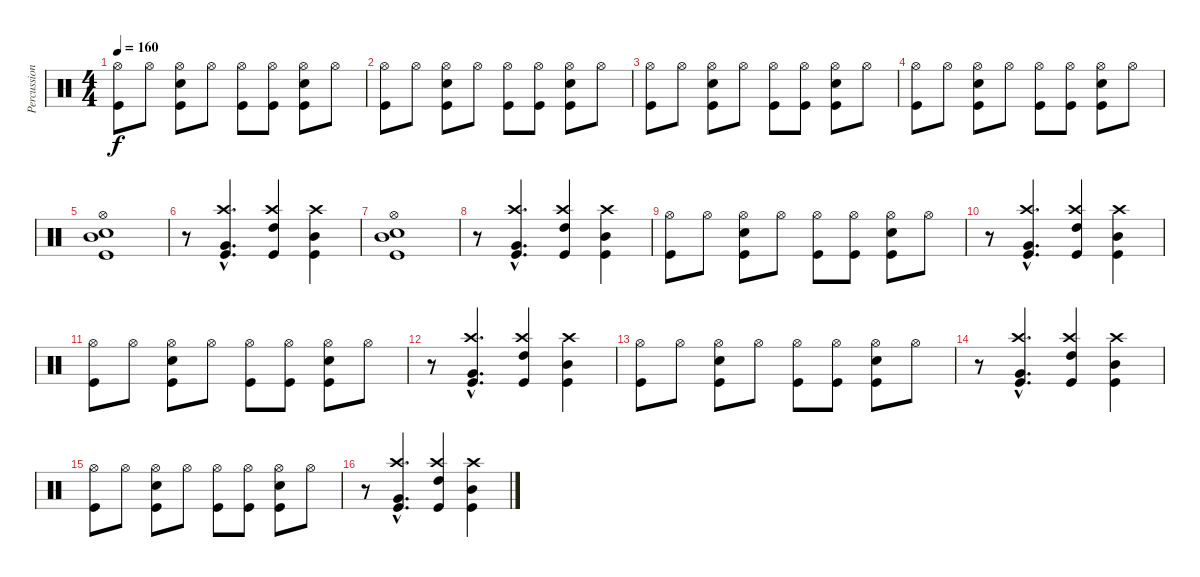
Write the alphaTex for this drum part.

\track ("Percussions" "Percussion") {instrument percussion}
\staff {score}
\articulation defaults
\ts (4 4)
\tempo 160
\clef neutral
\ks c
("Hi-Hat (open)" "Kick (hit)").8{dy f} "Hi-Hat (open)".8 ("Hi-Hat (open)" "Electric Snare (hit)" "Kick (hit)").8 "Hi-Hat (open)".8 ("Hi-Hat (open)" "Kick (hit)").8 ("Hi-Hat (open)" "Kick (hit)").8 ("Hi-Hat (open)" "Electric Snare (hit)" "Kick (hit)").8 "Hi-Hat (open)".8 |
("Hi-Hat (open)" "Kick (hit)").8 "Hi-Hat (open)".8 ("Hi-Hat (open)" "Electric Snare (hit)" "Kick (hit)").8 "Hi-Hat (open)".8 ("Hi-Hat (open)" "Kick (hit)").8 ("Hi-Hat (open)" "Kick (hit)").8 ("Hi-Hat (open)" "Electric Snare (hit)" "Kick (hit)").8 "Hi-Hat (open)".8 |
("Hi-Hat (open)" "Kick (hit)").8 "Hi-Hat (open)".8 ("Hi-Hat (open)" "Electric Snare (hit)" "Kick (hit)").8 "Hi-Hat (open)".8 ("Hi-Hat (open)" "Kick (hit)").8 ("Hi-Hat (open)" "Kick (hit)").8 ("Hi-Hat (open)" "Electric Snare (hit)" "Kick (hit)").8 "Hi-Hat (open)".8 |
("Hi-Hat (open)" "Kick (hit)").8 "Hi-Hat (open)".8 ("Hi-Hat (open)" "Electric Snare (hit)" "Kick (hit)").8 "Hi-Hat (open)".8 ("Hi-Hat (open)" "Kick (hit)").8 ("Hi-Hat (open)" "Kick (hit)").8 ("Hi-Hat (open)" "Electric Snare (hit)" "Kick (hit)").8 "Hi-Hat (open)".8 |
("Hi-Hat (open)" "Electric Snare (hit)" "Mid Tom (hit)" "Kick (hit)").1 |
r.8 ("Crash high (hit)"{hac} "Very Low Tom (hit)"{hac} "Kick (hit)"{hac}).4{d} ("Crash high (hit)" "High Tom (hit)" "Kick (hit)").4 ("Crash high (hit)" "Mid Tom (hit)" "Kick (hit)").4 |
("Hi-Hat (open)" "Electric Snare (hit)" "Mid Tom (hit)" "Kick (hit)").1 |
r.8 ("Crash high (hit)"{hac} "Very Low Tom (hit)"{hac} "Kick (hit)"{hac}).4{d} ("Crash high (hit)" "High Tom (hit)" "Kick (hit)").4 ("Crash high (hit)" "Mid Tom (hit)" "Kick (hit)").4 |
("Hi-Hat (open)" "Kick (hit)").8 "Hi-Hat (open)".8 ("Hi-Hat (open)" "Electric Snare (hit)" "Kick (hit)").8 "Hi-Hat (open)".8 ("Hi-Hat (open)" "Kick (hit)").8 ("Hi-Hat (open)" "Kick (hit)").8 ("Hi-Hat (open)" "Electric Snare (hit)" "Kick (hit)").8 "Hi-Hat (open)".8 |
r.8 ("Crash high (hit)"{hac} "Very Low Tom (hit)"{hac} "Kick (hit)"{hac}).4{d} ("Crash high (hit)" "High Tom (hit)" "Kick (hit)").4 ("Crash high (hit)" "Mid Tom (hit)" "Kick (hit)").4 |
("Hi-Hat (open)" "Kick (hit)").8 "Hi-Hat (open)".8 ("Hi-Hat (open)" "Electric Snare (hit)" "Kick (hit)").8 "Hi-Hat (open)".8 ("Hi-Hat (open)" "Kick (hit)").8 ("Hi-Hat (open)" "Kick (hit)").8 ("Hi-Hat (open)" "Electric Snare (hit)" "Kick (hit)").8 "Hi-Hat (open)".8 |
r.8 ("Crash high (hit)"{hac} "Very Low Tom (hit)"{hac} "Kick (hit)"{hac}).4{d} ("Crash high (hit)" "High Tom (hit)" "Kick (hit)").4 ("Crash high (hit)" "Mid Tom (hit)" "Kick (hit)").4 |
("Hi-Hat (open)" "Kick (hit)").8 "Hi-Hat (open)".8 ("Hi-Hat (open)" "Electric Snare (hit)" "Kick (hit)").8 "Hi-Hat (open)".8 ("Hi-Hat (open)" "Kick (hit)").8 ("Hi-Hat (open)" "Kick (hit)").8 ("Hi-Hat (open)" "Electric Snare (hit)" "Kick (hit)").8 "Hi-Hat (open)".8 |
r.8 ("Crash high (hit)"{hac} "Very Low Tom (hit)"{hac} "Kick (hit)"{hac}).4{d} ("Crash high (hit)" "High Tom (hit)" "Kick (hit)").4 ("Crash high (hit)" "Mid Tom (hit)" "Kick (hit)").4 |
("Hi-Hat (open)" "Kick (hit)").8 "Hi-Hat (open)".8 ("Hi-Hat (open)" "Electric Snare (hit)" "Kick (hit)").8 "Hi-Hat (open)".8 ("Hi-Hat (open)" "Kick (hit)").8 ("Hi-Hat (open)" "Kick (hit)").8 ("Hi-Hat (open)" "Electric Snare (hit)" "Kick (hit)").8 "Hi-Hat (open)".8 |
r.8 ("Crash high (hit)"{hac} "Very Low Tom (hit)"{hac} "Kick (hit)"{hac}).4{d} ("Crash high (hit)" "High Tom (hit)" "Kick (hit)").4 ("Crash high (hit)" "Mid Tom (hit)" "Kick (hit)").4
